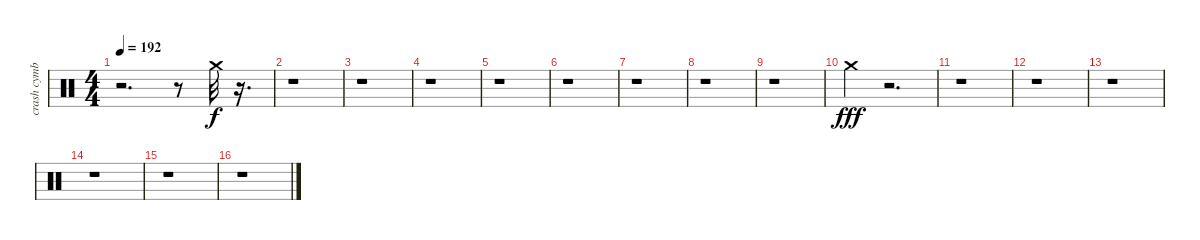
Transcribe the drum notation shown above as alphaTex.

\track ("crash cymbal" "crash cymb") {instrument percussion}
\staff {score}
\articulation defaults
\ts (4 4)
\tempo 192
\clef neutral
\ks c
r.2{d dy ff} r.8 "Crash medium (hit)".32{dy f} r.16{d} |
r.1 |
r.1 |
r.1 |
r.1 |
r.1 |
r.1 |
r.1 |
r.1 |
"Crash medium (hit)".4{dy fff} r.2{d} |
r.1 |
r.1 |
r.1 |
r.1 |
r.1 |
r.1
